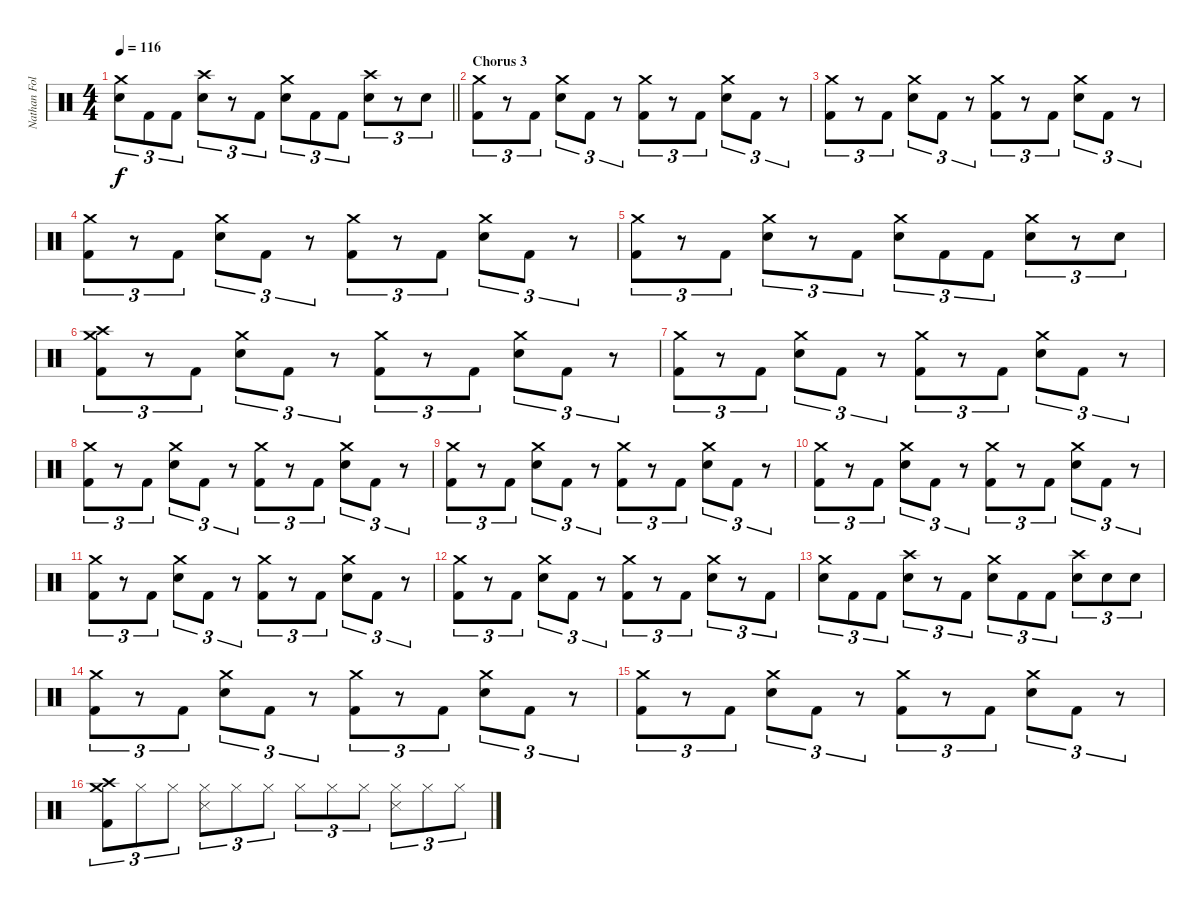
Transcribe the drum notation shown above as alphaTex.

\track ("Nathan Followill" "Nathan Fol") {instrument percussion}
\staff {score}
\articulation defaults
\ts (4 4)
\tempo 116
\clef neutral
\barLineRight lightlight
\ks c
("Crash medium (hit)" "Electric Snare (hit)").8{tu (3 2) dy f} "Kick (hit) 2".8{tu (3 2)} "Kick (hit) 2".8{tu (3 2)} ("Crash high (hit)" "Electric Snare (hit)").8{tu (3 2)} r.8{tu (3 2)} "Kick (hit) 2".8{tu (3 2)} ("Crash medium (hit)" "Electric Snare (hit)").8{tu (3 2)} "Kick (hit) 2".8{tu (3 2)} "Kick (hit) 2".8{tu (3 2)} ("Crash high (hit)" "Electric Snare (hit)").8{tu (3 2)} r.8{tu (3 2)} "Electric Snare (hit)".8{tu (3 2)} |
\section ("" "Chorus 3")
("Crash medium (hit)" "Kick (hit) 2").8{tu (3 2)} r.8{tu (3 2)} "Kick (hit) 2".8{tu (3 2)} ("Crash medium (hit)" "Electric Snare (hit)").8{tu (3 2)} "Kick (hit) 2".8{tu (3 2)} r.8{tu (3 2)} ("Crash medium (hit)" "Kick (hit) 2").8{tu (3 2)} r.8{tu (3 2)} "Kick (hit) 2".8{tu (3 2)} ("Crash medium (hit)" "Electric Snare (hit)").8{tu (3 2)} "Kick (hit) 2".8{tu (3 2)} r.8{tu (3 2)} |
("Crash medium (hit)" "Kick (hit) 2").8{tu (3 2)} r.8{tu (3 2)} "Kick (hit) 2".8{tu (3 2)} ("Crash medium (hit)" "Electric Snare (hit)").8{tu (3 2)} "Kick (hit) 2".8{tu (3 2)} r.8{tu (3 2)} ("Crash medium (hit)" "Kick (hit) 2").8{tu (3 2)} r.8{tu (3 2)} "Kick (hit) 2".8{tu (3 2)} ("Crash medium (hit)" "Electric Snare (hit)").8{tu (3 2)} "Kick (hit) 2".8{tu (3 2)} r.8{tu (3 2)} |
("Crash medium (hit)" "Kick (hit) 2").8{tu (3 2)} r.8{tu (3 2)} "Kick (hit) 2".8{tu (3 2)} ("Crash medium (hit)" "Electric Snare (hit)").8{tu (3 2)} "Kick (hit) 2".8{tu (3 2)} r.8{tu (3 2)} ("Crash medium (hit)" "Kick (hit) 2").8{tu (3 2)} r.8{tu (3 2)} "Kick (hit) 2".8{tu (3 2)} ("Crash medium (hit)" "Electric Snare (hit)").8{tu (3 2)} "Kick (hit) 2".8{tu (3 2)} r.8{tu (3 2)} |
("Crash medium (hit)" "Kick (hit) 2").8{tu (3 2)} r.8{tu (3 2)} "Kick (hit) 2".8{tu (3 2)} ("Crash medium (hit)" "Electric Snare (hit)").8{tu (3 2)} r.8{tu (3 2)} "Kick (hit) 2".8{tu (3 2)} ("Crash medium (hit)" "Electric Snare (hit)").8{tu (3 2)} "Kick (hit) 2".8{tu (3 2)} "Kick (hit) 2".8{tu (3 2)} ("Crash medium (hit)" "Electric Snare (hit)").8{tu (3 2)} r.8{tu (3 2)} "Electric Snare (hit)".8{tu (3 2)} |
("Crash high (hit)" "Crash medium (hit)" "Kick (hit) 2").8{tu (3 2)} r.8{tu (3 2)} "Kick (hit) 2".8{tu (3 2)} ("Crash medium (hit)" "Electric Snare (hit)").8{tu (3 2)} "Kick (hit) 2".8{tu (3 2)} r.8{tu (3 2)} ("Crash medium (hit)" "Kick (hit) 2").8{tu (3 2)} r.8{tu (3 2)} "Kick (hit) 2".8{tu (3 2)} ("Crash medium (hit)" "Electric Snare (hit)").8{tu (3 2)} "Kick (hit) 2".8{tu (3 2)} r.8{tu (3 2)} |
("Crash medium (hit)" "Kick (hit) 2").8{tu (3 2)} r.8{tu (3 2)} "Kick (hit) 2".8{tu (3 2)} ("Crash medium (hit)" "Electric Snare (hit)").8{tu (3 2)} "Kick (hit) 2".8{tu (3 2)} r.8{tu (3 2)} ("Crash medium (hit)" "Kick (hit) 2").8{tu (3 2)} r.8{tu (3 2)} "Kick (hit) 2".8{tu (3 2)} ("Crash medium (hit)" "Electric Snare (hit)").8{tu (3 2)} "Kick (hit) 2".8{tu (3 2)} r.8{tu (3 2)} |
("Crash medium (hit)" "Kick (hit) 2").8{tu (3 2)} r.8{tu (3 2)} "Kick (hit) 2".8{tu (3 2)} ("Crash medium (hit)" "Electric Snare (hit)").8{tu (3 2)} "Kick (hit) 2".8{tu (3 2)} r.8{tu (3 2)} ("Crash medium (hit)" "Kick (hit) 2").8{tu (3 2)} r.8{tu (3 2)} "Kick (hit) 2".8{tu (3 2)} ("Crash medium (hit)" "Electric Snare (hit)").8{tu (3 2)} "Kick (hit) 2".8{tu (3 2)} r.8{tu (3 2)} |
("Crash medium (hit)" "Kick (hit) 2").8{tu (3 2)} r.8{tu (3 2)} "Kick (hit) 2".8{tu (3 2)} ("Crash medium (hit)" "Electric Snare (hit)").8{tu (3 2)} "Kick (hit) 2".8{tu (3 2)} r.8{tu (3 2)} ("Crash medium (hit)" "Kick (hit) 2").8{tu (3 2)} r.8{tu (3 2)} "Kick (hit) 2".8{tu (3 2)} ("Crash medium (hit)" "Electric Snare (hit)").8{tu (3 2)} "Kick (hit) 2".8{tu (3 2)} r.8{tu (3 2)} |
("Crash medium (hit)" "Kick (hit) 2").8{tu (3 2)} r.8{tu (3 2)} "Kick (hit) 2".8{tu (3 2)} ("Crash medium (hit)" "Electric Snare (hit)").8{tu (3 2)} "Kick (hit) 2".8{tu (3 2)} r.8{tu (3 2)} ("Crash medium (hit)" "Kick (hit) 2").8{tu (3 2)} r.8{tu (3 2)} "Kick (hit) 2".8{tu (3 2)} ("Crash medium (hit)" "Electric Snare (hit)").8{tu (3 2)} "Kick (hit) 2".8{tu (3 2)} r.8{tu (3 2)} |
("Crash medium (hit)" "Kick (hit) 2").8{tu (3 2)} r.8{tu (3 2)} "Kick (hit) 2".8{tu (3 2)} ("Crash medium (hit)" "Electric Snare (hit)").8{tu (3 2)} "Kick (hit) 2".8{tu (3 2)} r.8{tu (3 2)} ("Crash medium (hit)" "Kick (hit) 2").8{tu (3 2)} r.8{tu (3 2)} "Kick (hit) 2".8{tu (3 2)} ("Crash medium (hit)" "Electric Snare (hit)").8{tu (3 2)} "Kick (hit) 2".8{tu (3 2)} r.8{tu (3 2)} |
("Crash medium (hit)" "Kick (hit) 2").8{tu (3 2)} r.8{tu (3 2)} "Kick (hit) 2".8{tu (3 2)} ("Crash medium (hit)" "Electric Snare (hit)").8{tu (3 2)} "Kick (hit) 2".8{tu (3 2)} r.8{tu (3 2)} ("Crash medium (hit)" "Kick (hit) 2").8{tu (3 2)} r.8{tu (3 2)} "Kick (hit) 2".8{tu (3 2)} ("Crash medium (hit)" "Electric Snare (hit)").8{tu (3 2)} r.8{tu (3 2)} "Kick (hit) 2".8{tu (3 2)} |
("Crash medium (hit)" "Electric Snare (hit)").8{tu (3 2)} "Kick (hit) 2".8{tu (3 2)} "Kick (hit) 2".8{tu (3 2)} ("Crash high (hit)" "Electric Snare (hit)").8{tu (3 2)} r.8{tu (3 2)} "Kick (hit) 2".8{tu (3 2)} ("Crash medium (hit)" "Electric Snare (hit)").8{tu (3 2)} "Kick (hit) 2".8{tu (3 2)} "Kick (hit) 2".8{tu (3 2)} ("Crash high (hit)" "Electric Snare (hit)").8{tu (3 2)} "Electric Snare (hit)".8{tu (3 2)} "Electric Snare (hit)".8{tu (3 2)} |
("Crash medium (hit)" "Kick (hit) 2").8{tu (3 2)} r.8{tu (3 2)} "Kick (hit) 2".8{tu (3 2)} ("Crash medium (hit)" "Electric Snare (hit)").8{tu (3 2)} "Kick (hit) 2".8{tu (3 2)} r.8{tu (3 2)} ("Crash medium (hit)" "Kick (hit) 2").8{tu (3 2)} r.8{tu (3 2)} "Kick (hit) 2".8{tu (3 2)} ("Crash medium (hit)" "Electric Snare (hit)").8{tu (3 2)} "Kick (hit) 2".8{tu (3 2)} r.8{tu (3 2)} |
("Crash medium (hit)" "Kick (hit) 2").8{tu (3 2)} r.8{tu (3 2)} "Kick (hit) 2".8{tu (3 2)} ("Crash medium (hit)" "Electric Snare (hit)").8{tu (3 2)} "Kick (hit) 2".8{tu (3 2)} r.8{tu (3 2)} ("Crash medium (hit)" "Kick (hit) 2").8{tu (3 2)} r.8{tu (3 2)} "Kick (hit) 2".8{tu (3 2)} ("Crash medium (hit)" "Electric Snare (hit)").8{tu (3 2)} "Kick (hit) 2".8{tu (3 2)} r.8{tu (3 2)} |
("Crash medium (hit)" "Crash high (hit)" "Kick (hit) 2").8{tu (3 2)} "Hi-Hat (closed)".8{tu (3 2)} "Hi-Hat (closed)".8{tu (3 2)} ("Hi-Hat (closed)" "Snare (side stick) 3").8{tu (3 2)} "Hi-Hat (closed)".8{tu (3 2)} "Hi-Hat (closed)".8{tu (3 2)} "Hi-Hat (closed)".8{tu (3 2)} "Hi-Hat (closed)".8{tu (3 2)} "Hi-Hat (closed)".8{tu (3 2)} ("Hi-Hat (closed)" "Snare (side stick) 3").8{tu (3 2)} "Hi-Hat (closed)".8{tu (3 2)} "Hi-Hat (closed)".8{tu (3 2)}
